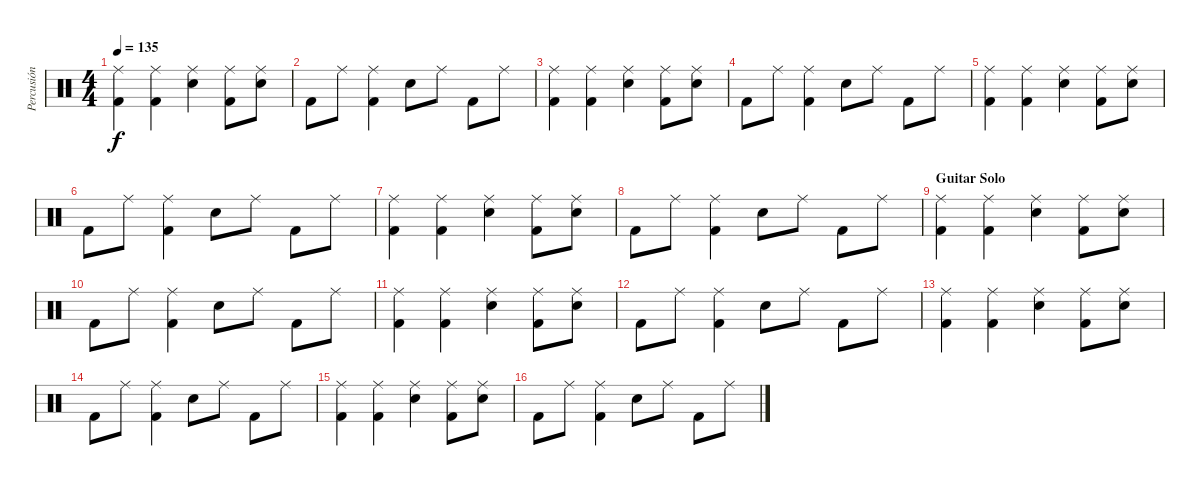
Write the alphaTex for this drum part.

\track ("Percusión" "Percusión") {instrument percussion}
\staff {score}
\articulation defaults
\ts (4 4)
\tempo 135
\clef neutral
\ks c
("Kick (hit) 2" "Ride (middle)").4{dy f} ("Kick (hit) 2" "Ride (middle)").4 ("Ride (middle)" "Snare (hit) 2").4 ("Kick (hit) 2" "Ride (middle)").8 ("Snare (hit) 2" "Ride (middle)").8 |
"Kick (hit) 2".8 "Ride (middle)".8 ("Kick (hit) 2" "Ride (middle)").4 "Snare (hit) 2".8 "Ride (middle)".8 "Kick (hit) 2".8 "Ride (middle)".8 |
("Kick (hit) 2" "Ride (middle)").4 ("Kick (hit) 2" "Ride (middle)").4 ("Ride (middle)" "Snare (hit) 2").4 ("Kick (hit) 2" "Ride (middle)").8 ("Snare (hit) 2" "Ride (middle)").8 |
"Kick (hit) 2".8 "Ride (middle)".8 ("Kick (hit) 2" "Ride (middle)").4 "Snare (hit) 2".8 "Ride (middle)".8 "Kick (hit) 2".8 "Ride (middle)".8 |
("Kick (hit) 2" "Ride (middle)").4 ("Kick (hit) 2" "Ride (middle)").4 ("Ride (middle)" "Snare (hit) 2").4 ("Kick (hit) 2" "Ride (middle)").8 ("Snare (hit) 2" "Ride (middle)").8 |
"Kick (hit) 2".8 "Ride (middle)".8 ("Kick (hit) 2" "Ride (middle)").4 "Snare (hit) 2".8 "Ride (middle)".8 "Kick (hit) 2".8 "Ride (middle)".8 |
("Kick (hit) 2" "Ride (middle)").4 ("Kick (hit) 2" "Ride (middle)").4 ("Ride (middle)" "Snare (hit) 2").4 ("Kick (hit) 2" "Ride (middle)").8 ("Snare (hit) 2" "Ride (middle)").8 |
"Kick (hit) 2".8 "Ride (middle)".8 ("Kick (hit) 2" "Ride (middle)").4 "Snare (hit) 2".8 "Ride (middle)".8 "Kick (hit) 2".8 "Ride (middle)".8 |
\section ("" "Guitar Solo")
("Kick (hit) 2" "Ride (middle)").4 ("Kick (hit) 2" "Ride (middle)").4 ("Ride (middle)" "Snare (hit) 2").4 ("Kick (hit) 2" "Ride (middle)").8 ("Snare (hit) 2" "Ride (middle)").8 |
"Kick (hit) 2".8 "Ride (middle)".8 ("Kick (hit) 2" "Ride (middle)").4 "Snare (hit) 2".8 "Ride (middle)".8 "Kick (hit) 2".8 "Ride (middle)".8 |
("Kick (hit) 2" "Ride (middle)").4 ("Kick (hit) 2" "Ride (middle)").4 ("Ride (middle)" "Snare (hit) 2").4 ("Kick (hit) 2" "Ride (middle)").8 ("Snare (hit) 2" "Ride (middle)").8 |
"Kick (hit) 2".8 "Ride (middle)".8 ("Kick (hit) 2" "Ride (middle)").4 "Snare (hit) 2".8 "Ride (middle)".8 "Kick (hit) 2".8 "Ride (middle)".8 |
("Kick (hit) 2" "Ride (middle)").4 ("Kick (hit) 2" "Ride (middle)").4 ("Ride (middle)" "Snare (hit) 2").4 ("Kick (hit) 2" "Ride (middle)").8 ("Snare (hit) 2" "Ride (middle)").8 |
"Kick (hit) 2".8 "Ride (middle)".8 ("Kick (hit) 2" "Ride (middle)").4 "Snare (hit) 2".8 "Ride (middle)".8 "Kick (hit) 2".8 "Ride (middle)".8 |
("Kick (hit) 2" "Ride (middle)").4 ("Kick (hit) 2" "Ride (middle)").4 ("Ride (middle)" "Snare (hit) 2").4 ("Kick (hit) 2" "Ride (middle)").8 ("Snare (hit) 2" "Ride (middle)").8 |
"Kick (hit) 2".8 "Ride (middle)".8 ("Kick (hit) 2" "Ride (middle)").4 "Snare (hit) 2".8 "Ride (middle)".8 "Kick (hit) 2".8 "Ride (middle)".8
